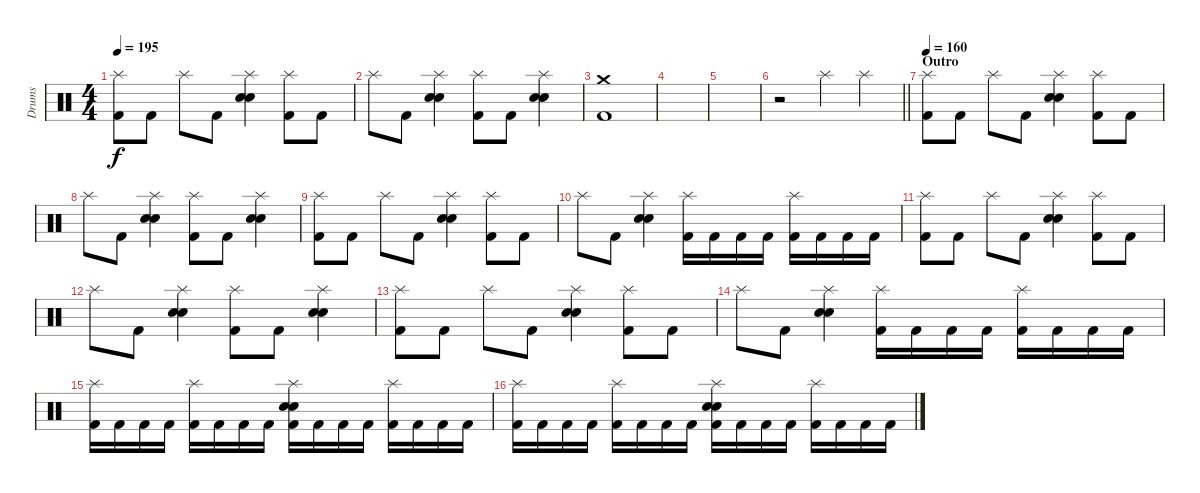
\track ("Drums" "Drums") {instrument percussion}
\staff {score}
\articulation defaults
\ts (4 4)
\tempo 195
\clef neutral
\ks c
("Splash (hit)" "Kick (hit) 2").8{dy f} "Kick (hit) 2".8 "Splash (hit)".8 "Kick (hit) 2".8 ("Splash (hit)" "Electric Snare (hit)" "Snare (hit) 2").4 ("Splash (hit)" "Kick (hit) 2").8 "Kick (hit) 2".8 |
"Splash (hit)".8 "Kick (hit) 2".8 ("Splash (hit)" "Electric Snare (hit)" "Snare (hit) 2").4 ("Splash (hit)" "Kick (hit) 2").8 "Kick (hit) 2".8 ("Splash (hit)" "Electric Snare (hit)" "Snare (hit) 2").4 |
("Crash medium (hit)" "Kick (hit) 2").1 |
|
|
\barLineRight lightlight
r.2 "Splash (hit)".4 "Splash (hit)".4 |
\section ("" "Outro")
\tempo 160
("Splash (hit)" "Kick (hit) 2").8 "Kick (hit) 2".8 "Splash (hit)".8 "Kick (hit) 2".8 ("Splash (hit)" "Electric Snare (hit)" "Snare (hit) 2").4 ("Splash (hit)" "Kick (hit) 2").8 "Kick (hit) 2".8 |
"Splash (hit)".8 "Kick (hit) 2".8 ("Splash (hit)" "Electric Snare (hit)" "Snare (hit) 2").4 ("Splash (hit)" "Kick (hit) 2").8 "Kick (hit) 2".8 ("Splash (hit)" "Electric Snare (hit)" "Snare (hit) 2").4 |
("Splash (hit)" "Kick (hit) 2").8 "Kick (hit) 2".8 "Splash (hit)".8 "Kick (hit) 2".8 ("Splash (hit)" "Electric Snare (hit)" "Snare (hit) 2").4 ("Splash (hit)" "Kick (hit) 2").8 "Kick (hit) 2".8 |
"Splash (hit)".8 "Kick (hit) 2".8 ("Splash (hit)" "Electric Snare (hit)" "Snare (hit) 2").4 ("Splash (hit)" "Kick (hit) 2").16 "Kick (hit) 2".16 "Kick (hit) 2".16 "Kick (hit) 2".16 ("Splash (hit)" "Kick (hit) 2").16 "Kick (hit) 2".16 "Kick (hit) 2".16 "Kick (hit) 2".16 |
("Splash (hit)" "Kick (hit) 2").8 "Kick (hit) 2".8 "Splash (hit)".8 "Kick (hit) 2".8 ("Splash (hit)" "Electric Snare (hit)" "Snare (hit) 2").4 ("Splash (hit)" "Kick (hit) 2").8 "Kick (hit) 2".8 |
"Splash (hit)".8 "Kick (hit) 2".8 ("Splash (hit)" "Electric Snare (hit)" "Snare (hit) 2").4 ("Splash (hit)" "Kick (hit) 2").8 "Kick (hit) 2".8 ("Splash (hit)" "Electric Snare (hit)" "Snare (hit) 2").4 |
("Splash (hit)" "Kick (hit) 2").8 "Kick (hit) 2".8 "Splash (hit)".8 "Kick (hit) 2".8 ("Splash (hit)" "Electric Snare (hit)" "Snare (hit) 2").4 ("Splash (hit)" "Kick (hit) 2").8 "Kick (hit) 2".8 |
"Splash (hit)".8 "Kick (hit) 2".8 ("Splash (hit)" "Electric Snare (hit)" "Snare (hit) 2").4 ("Splash (hit)" "Kick (hit) 2").16 "Kick (hit) 2".16 "Kick (hit) 2".16 "Kick (hit) 2".16 ("Splash (hit)" "Kick (hit) 2").16 "Kick (hit) 2".16 "Kick (hit) 2".16 "Kick (hit) 2".16 |
("Splash (hit)" "Kick (hit) 2").16 "Kick (hit) 2".16 "Kick (hit) 2".16 "Kick (hit) 2".16 ("Splash (hit)" "Kick (hit) 2").16 "Kick (hit) 2".16 "Kick (hit) 2".16 "Kick (hit) 2".16 ("Splash (hit)" "Electric Snare (hit)" "Snare (hit) 2" "Kick (hit) 2").16 "Kick (hit) 2".16 "Kick (hit) 2".16 "Kick (hit) 2".16 ("Splash (hit)" "Kick (hit) 2").16 "Kick (hit) 2".16 "Kick (hit) 2".16 "Kick (hit) 2".16 |
("Splash (hit)" "Kick (hit) 2").16 "Kick (hit) 2".16 "Kick (hit) 2".16 "Kick (hit) 2".16 ("Splash (hit)" "Kick (hit) 2").16 "Kick (hit) 2".16 "Kick (hit) 2".16 "Kick (hit) 2".16 ("Splash (hit)" "Electric Snare (hit)" "Snare (hit) 2" "Kick (hit) 2").16 "Kick (hit) 2".16 "Kick (hit) 2".16 "Kick (hit) 2".16 ("Splash (hit)" "Kick (hit) 2").16 "Kick (hit) 2".16 "Kick (hit) 2".16 "Kick (hit) 2".16
